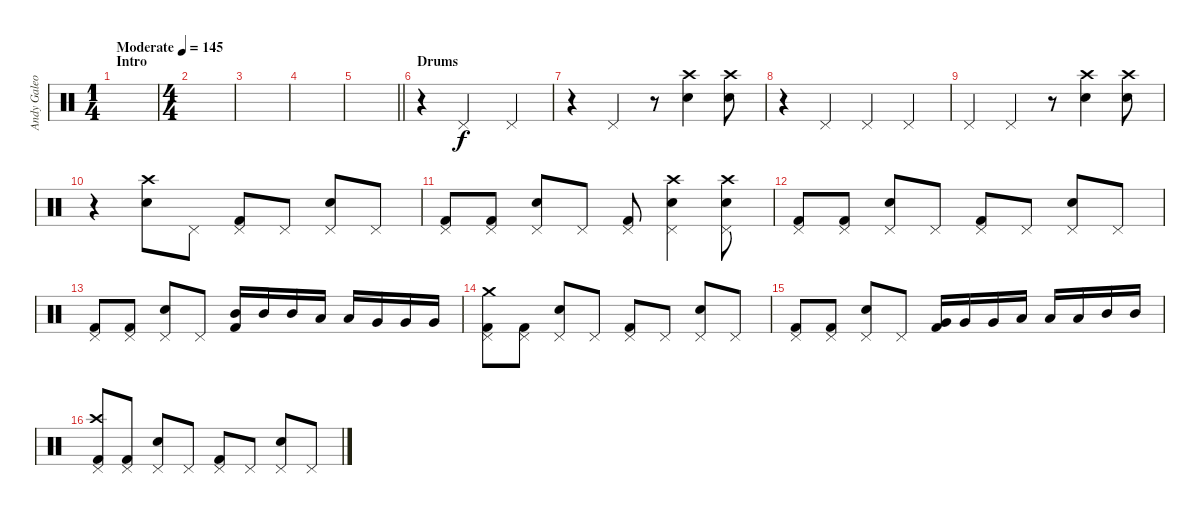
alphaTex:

\track ("Andy Galeon" "Andy Galeo") {instrument percussion}
\staff {score}
\articulation defaults
\ts (1 4)
\section ("" "Intro")
\tempo (145 "Moderate")
\clef neutral
\ks c
|
\ts (4 4)
|
|
|
\barLineRight lightlight
|
\section ("" "Drums")
r.4 "Pedal Hi-Hat (hit)".2 "Pedal Hi-Hat (hit)".4 |
r.4 "Pedal Hi-Hat (hit)".4 r.8 ("Electric Snare (hit)" "Crash high (hit)").4 ("Electric Snare (hit)" "Crash high (hit)").8 |
r.4 "Pedal Hi-Hat (hit)".4 "Pedal Hi-Hat (hit)".4 "Pedal Hi-Hat (hit)".4 |
"Pedal Hi-Hat (hit)".4 "Pedal Hi-Hat (hit)".4 r.8 ("Electric Snare (hit)" "Crash high (hit)").4 ("Electric Snare (hit)" "Crash high (hit)").8 |
r.4 ("Electric Snare (hit)" "Crash high (hit)").8 "Pedal Hi-Hat (hit)".8 ("Kick (hit) 2" "Pedal Hi-Hat (hit)").8 "Pedal Hi-Hat (hit)".8 ("Electric Snare (hit)" "Pedal Hi-Hat (hit)").8 "Pedal Hi-Hat (hit)".8 |
("Kick (hit) 2" "Pedal Hi-Hat (hit)").8 ("Kick (hit) 2" "Pedal Hi-Hat (hit)").8 ("Electric Snare (hit)" "Pedal Hi-Hat (hit)").8 "Pedal Hi-Hat (hit)".8 ("Kick (hit) 2" "Pedal Hi-Hat (hit)").8 ("Electric Snare (hit)" "Pedal Hi-Hat (hit)" "Crash high (hit)").4 ("Electric Snare (hit)" "Pedal Hi-Hat (hit)" "Crash high (hit)").8 |
("Kick (hit) 2" "Pedal Hi-Hat (hit)").8 ("Kick (hit) 2" "Pedal Hi-Hat (hit)").8 ("Electric Snare (hit)" "Pedal Hi-Hat (hit)").8 "Pedal Hi-Hat (hit)".8 ("Kick (hit) 2" "Pedal Hi-Hat (hit)").8 "Pedal Hi-Hat (hit)".8 ("Electric Snare (hit)" "Pedal Hi-Hat (hit)").8 "Pedal Hi-Hat (hit)".8 |
("Kick (hit) 2" "Pedal Hi-Hat (hit)").8 ("Kick (hit) 2" "Pedal Hi-Hat (hit)").8 ("Electric Snare (hit)" "Pedal Hi-Hat (hit)").8 "Pedal Hi-Hat (hit)".8 ("Kick (hit) 2" "Mid Tom (hit)").16 "Mid Tom (hit)".16 "Mid Tom (hit)".16 "Low Tom (hit)".16 "Low Tom (hit)".16 "Very Low Tom (hit)".16 "Very Low Tom (hit)".16 "Very Low Tom (hit)".16 |
("Kick (hit) 2" "Pedal Hi-Hat (hit)" "Crash medium (hit)").8 ("Kick (hit) 2" "Pedal Hi-Hat (hit)").8 ("Electric Snare (hit)" "Pedal Hi-Hat (hit)").8 "Pedal Hi-Hat (hit)".8 ("Kick (hit) 2" "Pedal Hi-Hat (hit)").8 "Pedal Hi-Hat (hit)".8 ("Electric Snare (hit)" "Pedal Hi-Hat (hit)").8 "Pedal Hi-Hat (hit)".8 |
("Kick (hit) 2" "Pedal Hi-Hat (hit)").8 ("Kick (hit) 2" "Pedal Hi-Hat (hit)").8 ("Electric Snare (hit)" "Pedal Hi-Hat (hit)").8 "Pedal Hi-Hat (hit)".8 ("Kick (hit) 2" "Very Low Tom (hit)").16 "Very Low Tom (hit)".16 "Very Low Tom (hit)".16 "Low Tom (hit)".16 "Low Tom (hit)".16 "Low Tom (hit)".16 "Mid Tom (hit)".16 "Mid Tom (hit)".16 |
("Kick (hit) 2" "Pedal Hi-Hat (hit)" "Crash high (hit)").8 ("Kick (hit) 2" "Pedal Hi-Hat (hit)").8 ("Electric Snare (hit)" "Pedal Hi-Hat (hit)").8 "Pedal Hi-Hat (hit)".8 ("Kick (hit) 2" "Pedal Hi-Hat (hit)").8 "Pedal Hi-Hat (hit)".8 ("Electric Snare (hit)" "Pedal Hi-Hat (hit)").8 "Pedal Hi-Hat (hit)".8
